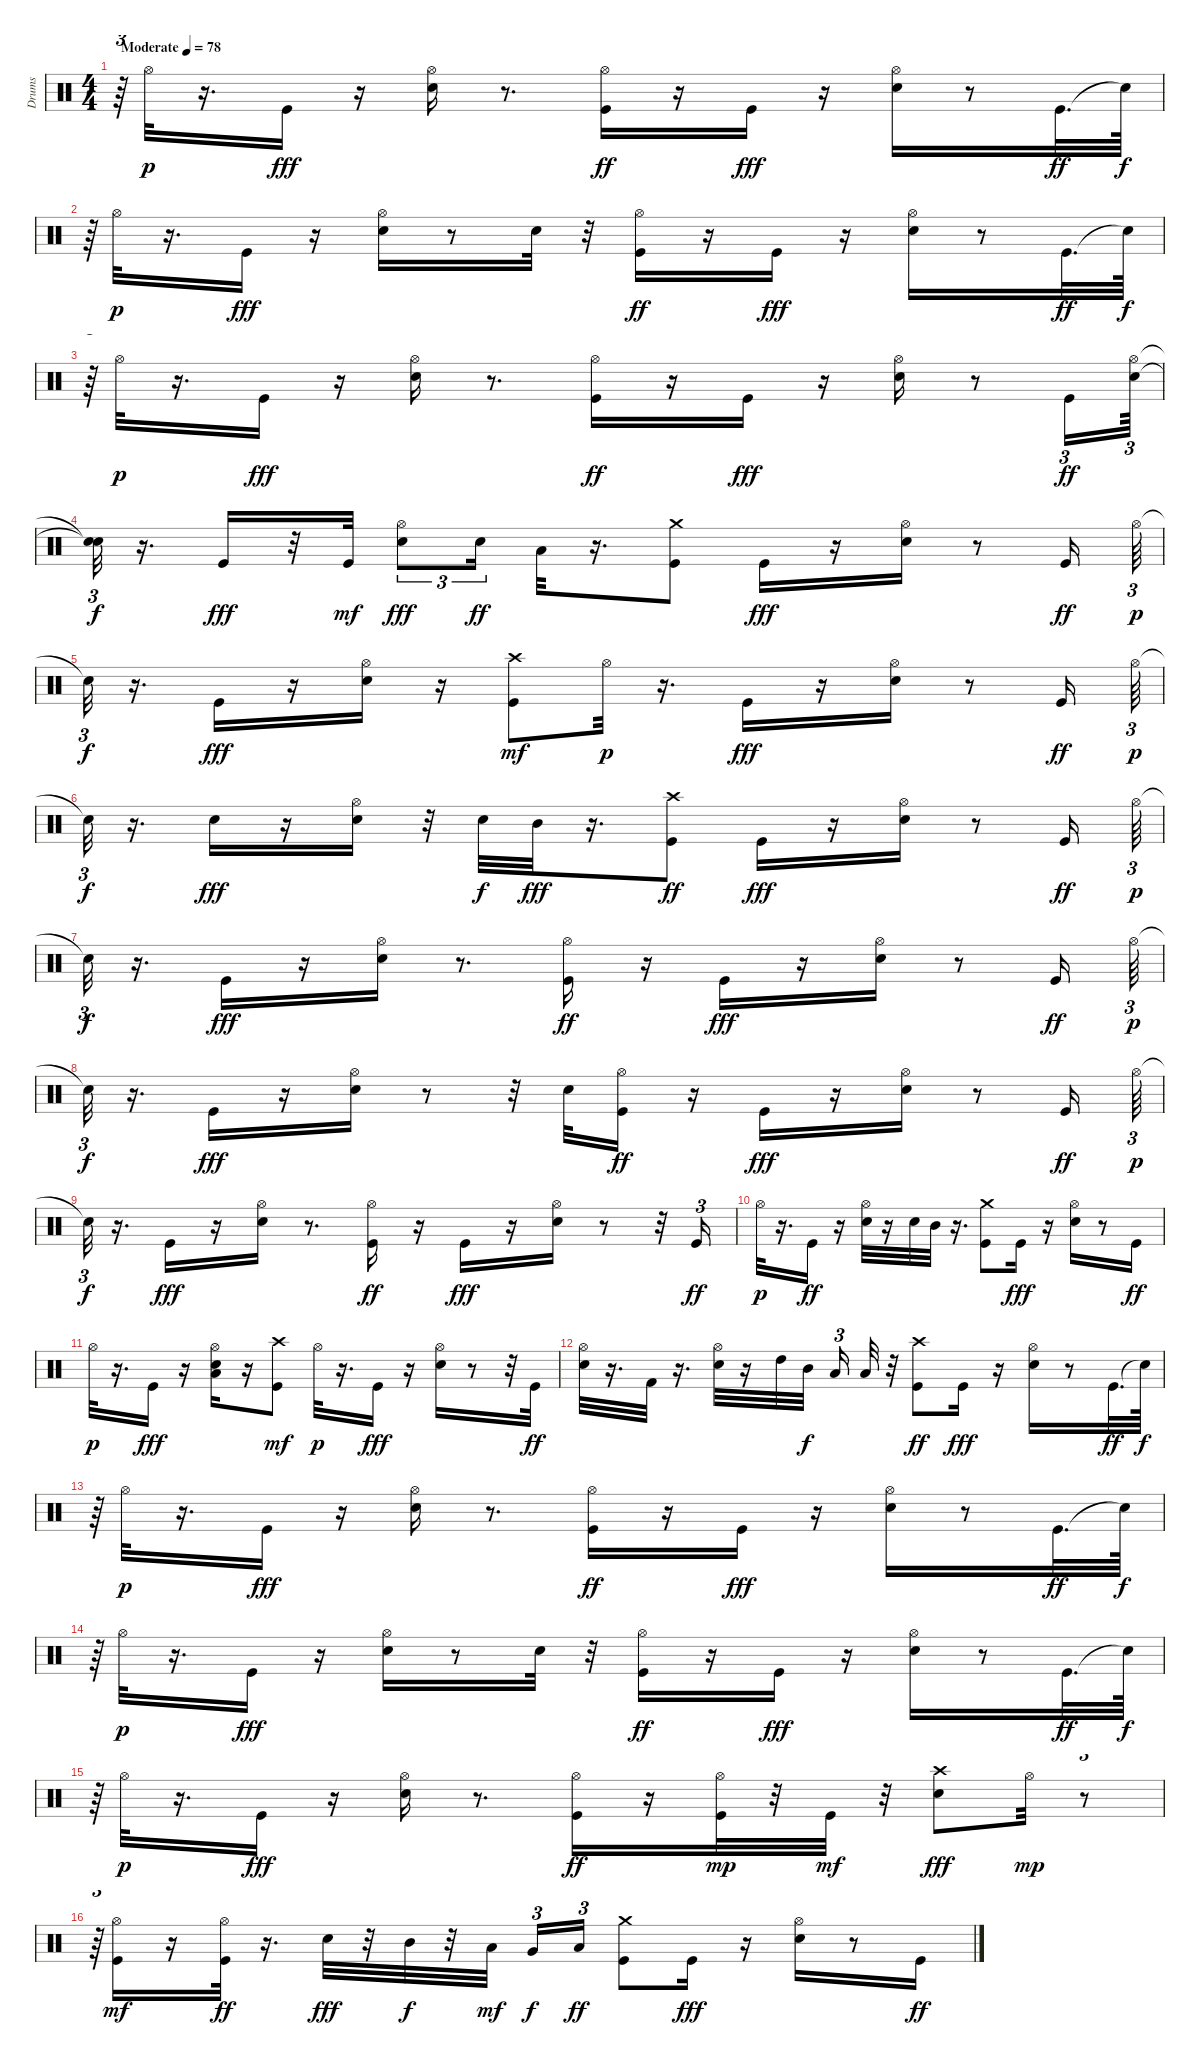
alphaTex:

\track ("Drums" "Drums") {instrument percussion}
\staff {score}
\articulation defaults
\ts (4 4)
\tempo (78 "Moderate")
\clef neutral
\ks c
r.64{tu (3 2) dy p} "Hi-Hat (open)".32 r.16{d} "Kick (hit)".16{dy fff} r.16 ("Hi-Hat (open)" "Electric Snare (hit)").16 r.8{d} ("Hi-Hat (open)" "Kick (hit)").16{dy ff} r.16 "Kick (hit)".16{dy fff} r.16 ("Hi-Hat (open)" "Electric Snare (hit)").16 r.8 "Kick (hit)".32{d dy ff} "Snare (hit)"{t}.64{dy f} |
r.64{tu (3 2)} "Hi-Hat (open)".32{dy p} r.16{d} "Kick (hit)".16{dy fff} r.16 ("Hi-Hat (open)" "Electric Snare (hit)").16 r.8 "Electric Snare (hit)".32 r.32 ("Hi-Hat (open)" "Kick (hit)").16{dy ff} r.16 "Kick (hit)".16{dy fff} r.16 ("Hi-Hat (open)" "Electric Snare (hit)").16 r.8 "Kick (hit)".32{d dy ff} "Snare (hit)"{t}.64{dy f} |
r.64{tu (3 2)} "Hi-Hat (open)".32{dy p} r.16{d} "Kick (hit)".16{dy fff} r.16 ("Hi-Hat (open)" "Electric Snare (hit)").16 r.8{d} ("Hi-Hat (open)" "Kick (hit)").16{dy ff} r.16 "Kick (hit)".16{dy fff} r.16 ("Hi-Hat (open)" "Electric Snare (hit)").16 r.8 "Kick (hit)".16{tu (3 2) dy ff} ("Hi-Hat (open)" "Electric Snare (hit)").64{tu (3 2)} |
("Snare (hit)"{t} "Snare (hit)"{t}).32{tu (3 2) dy f} r.16{d} "Kick (hit)".16{dy fff} r.32 "Kick (hit)".32{dy mf} ("Hi-Hat (open)" "Electric Snare (hit)").8{tu (3 2) dy fff} "Electric Snare (hit)".16{tu (3 2) dy ff} "Low Tom (hit)".32 r.16{d} ("Crash medium (hit)" "Kick (hit)").8 "Kick (hit)".16{dy fff} r.16 ("Hi-Hat (open)" "Electric Snare (hit)").16 r.8 "Kick (hit)".16{dy ff} "Hi-Hat (open)".64{tu (3 2) dy p} |
"Snare (hit)"{t}.32{tu (3 2) dy f} r.16{d} "Kick (hit)".16{dy fff} r.16 ("Hi-Hat (open)" "Electric Snare (hit)").16 r.16 ("Kick (hit)" "Crash high (hit)").8{dy mf} "Hi-Hat (open)".32{dy p} r.16{d} "Kick (hit)".16{dy fff} r.16 ("Hi-Hat (open)" "Electric Snare (hit)").16 r.8 "Kick (hit)".16{dy ff} "Hi-Hat (open)".64{tu (3 2) dy p} |
"Snare (hit)"{t}.32{tu (3 2) dy f} r.16{d} "Electric Snare (hit)".16{dy fff} r.16 ("Hi-Hat (open)" "Electric Snare (hit)").16 r.32 "Electric Snare (hit)".32{dy f} "Mid Tom (hit)".32{dy fff} r.16{d} ("Crash high (hit)" "Kick (hit)").8{dy ff} "Kick (hit)".16{dy fff} r.16 ("Hi-Hat (open)" "Electric Snare (hit)").16 r.8 "Kick (hit)".16{dy ff} "Hi-Hat (open)".64{tu (3 2) dy p} |
"Snare (hit)"{t}.32{tu (3 2) dy f} r.16{d} "Kick (hit)".16{dy fff} r.16 ("Hi-Hat (open)" "Electric Snare (hit)").16 r.8{d} ("Hi-Hat (open)" "Kick (hit)").16{dy ff} r.16 "Kick (hit)".16{dy fff} r.16 ("Hi-Hat (open)" "Electric Snare (hit)").16 r.8 "Kick (hit)".16{dy ff} "Hi-Hat (open)".64{tu (3 2) dy p} |
"Snare (hit)"{t}.32{tu (3 2) dy f} r.16{d} "Kick (hit)".16{dy fff} r.16 ("Hi-Hat (open)" "Electric Snare (hit)").16 r.8 r.32 "Electric Snare (hit)".32 ("Hi-Hat (open)" "Kick (hit)").16{dy ff} r.16 "Kick (hit)".16{dy fff} r.16 ("Hi-Hat (open)" "Electric Snare (hit)").16 r.8 "Kick (hit)".16{dy ff} "Hi-Hat (open)".64{tu (3 2) dy p} |
"Snare (hit)"{t}.32{tu (3 2) dy f} r.16{d} "Kick (hit)".16{dy fff} r.16 ("Hi-Hat (open)" "Electric Snare (hit)").16 r.8{d} ("Hi-Hat (open)" "Kick (hit)").16{dy ff} r.16 "Kick (hit)".16{dy fff} r.16 ("Hi-Hat (open)" "Electric Snare (hit)").16 r.8 r.32 "Kick (hit)".16{tu (3 2) dy ff} |
"Hi-Hat (open)".32{dy p} r.16{d} "Kick (hit)".16{dy ff} r.16 ("Hi-Hat (open)" "Electric Snare (hit)").32 r.16 "Electric Snare (hit)".32 "Mid Tom (hit)".32 r.16{d} ("Crash medium (hit)" "Kick (hit)").8 "Kick (hit)".16{dy fff} r.16 ("Hi-Hat (open)" "Electric Snare (hit)").16 r.8 "Kick (hit)".16{dy ff} |
"Hi-Hat (open)".32{dy p} r.16{d} "Kick (hit)".16{dy fff} r.16 ("Hi-Hat (open)" "Low Floor Tom (hit)" "Electric Snare (hit)").16 r.16 ("Kick (hit)" "Crash high (hit)").8{dy mf} "Hi-Hat (open)".32{dy p} r.16{d} "Kick (hit)".16{dy fff} r.16 ("Hi-Hat (open)" "Electric Snare (hit)").16 r.8 r.32 "Kick (hit)".32{dy ff} |
("Hi-Hat (open)" "Electric Snare (hit)").32 r.16{d} "Kick (hit) 2".32 r.16{d} ("Hi-Hat (open)" "Electric Snare (hit)").32 r.16 "High Tom (hit)".32 "Mid Tom (hit)".32{dy f} "Low Tom (hit)".16{tu (3 2)} "Low Floor Tom (hit)".32 r.32 ("Crash high (hit)" "Kick (hit)").8{dy ff} "Kick (hit)".16{dy fff} r.16 ("Hi-Hat (open)" "Electric Snare (hit)").16 r.8 "Kick (hit)".32{d dy ff} "Snare (hit)"{t}.64{dy f} |
r.64{tu (3 2)} "Hi-Hat (open)".32{dy p} r.16{d} "Kick (hit)".16{dy fff} r.16 ("Hi-Hat (open)" "Electric Snare (hit)").16 r.8{d} ("Hi-Hat (open)" "Kick (hit)").16{dy ff} r.16 "Kick (hit)".16{dy fff} r.16 ("Hi-Hat (open)" "Electric Snare (hit)").16 r.8 "Kick (hit)".32{d dy ff} "Snare (hit)"{t}.64{dy f} |
r.64{tu (3 2)} "Hi-Hat (open)".32{dy p} r.16{d} "Kick (hit)".16{dy fff} r.16 ("Hi-Hat (open)" "Electric Snare (hit)").16 r.8 "Electric Snare (hit)".32 r.32 ("Hi-Hat (open)" "Kick (hit)").16{dy ff} r.16 "Kick (hit)".16{dy fff} r.16 ("Hi-Hat (open)" "Electric Snare (hit)").16 r.8 "Kick (hit)".32{d dy ff} "Snare (hit)"{t}.64{dy f} |
r.64{tu (3 2)} "Hi-Hat (open)".32{dy p} r.16{d} "Kick (hit)".16{dy fff} r.16 ("Hi-Hat (open)" "Electric Snare (hit)").16 r.8{d} ("Hi-Hat (open)" "Kick (hit)").16{dy ff} r.16 ("Hi-Hat (open)" "Kick (hit)").32{dy mp} r.32 "Kick (hit)".32{dy mf} r.32 ("Crash high (hit)" "Electric Snare (hit)").8{dy fff} "Hi-Hat (open)".32{dy mp} r.8{tu (3 2)} |
r.64{tu (3 2)} ("Kick (hit)" "Hi-Hat (open)").16{dy mf} r.16 ("Hi-Hat (open)" "Kick (hit)").32{dy ff} r.16{d} "Electric Snare (hit)".32{dy fff} r.32 "Mid Tom (hit)".32{dy f} r.32 "Low Tom (hit)".32{dy mf} "Very Low Tom (hit)".16{tu (3 2) dy f} "Low Floor Tom (hit)".16{tu (3 2) dy ff} ("Crash medium (hit)" "Kick (hit)").8 "Kick (hit)".16{dy fff} r.16 ("Hi-Hat (open)" "Electric Snare (hit)").16 r.8 "Kick (hit)".16{dy ff}
